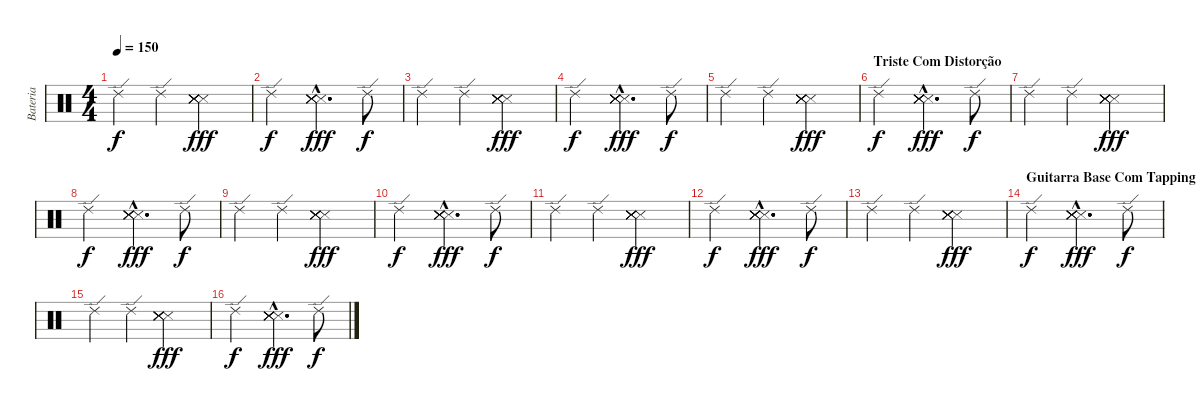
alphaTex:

\track ("Bateria" "Bateria") {instrument percussion}
\staff {score}
\articulation defaults
\ts (4 4)
\tempo 150
\clef neutral
\ks c "Ride (edge) 2".4{dy f} "Ride (edge) 2".4
("Snare (side stick) 3" "Snare (side stick) 3" "Snare (side stick) 3" "Snare (side stick) 3" "Snare (side stick) 3" "Snare (side stick) 3").2{dy fff} |
"Ride (edge) 2".2{dy f} ("Snare (side stick) 3"{hac} "Snare (side stick) 3"{hac} "Snare (side stick) 3"{hac} "Snare (side stick) 3"{hac} "Snare (side stick) 3"{hac} "Snare (side stick) 3"{hac}).4{d dy fff} "Ride (edge) 2".8{dy f} |
"Ride (edge) 2".4 "Ride (edge) 2".4 ("Snare (side stick) 3" "Snare (side stick) 3" "Snare (side stick) 3" "Snare (side stick) 3" "Snare (side stick) 3" "Snare (side stick) 3").2{dy fff} |
"Ride (edge) 2".2{dy f} ("Snare (side stick) 3"{hac} "Snare (side stick) 3"{hac} "Snare (side stick) 3"{hac} "Snare (side stick) 3"{hac} "Snare (side stick) 3"{hac} "Snare (side stick) 3"{hac}).4{d dy fff} "Ride (edge) 2".8{dy f} |
"Ride (edge) 2".4 "Ride (edge) 2".4 ("Snare (side stick) 3" "Snare (side stick) 3" "Snare (side stick) 3" "Snare (side stick) 3" "Snare (side stick) 3" "Snare (side stick) 3").2{dy fff} |
\section ("" "Triste Com Distorção")
"Ride (edge) 2".2{dy f} ("Snare (side stick) 3"{hac} "Snare (side stick) 3"{hac} "Snare (side stick) 3"{hac} "Snare (side stick) 3"{hac} "Snare (side stick) 3"{hac} "Snare (side stick) 3"{hac}).4{d dy fff} "Ride (edge) 2".8{dy f} |
"Ride (edge) 2".4 "Ride (edge) 2".4 ("Snare (side stick) 3" "Snare (side stick) 3" "Snare (side stick) 3" "Snare (side stick) 3" "Snare (side stick) 3" "Snare (side stick) 3").2{dy fff} |
"Ride (edge) 2".2{dy f} ("Snare (side stick) 3"{hac} "Snare (side stick) 3"{hac} "Snare (side stick) 3"{hac} "Snare (side stick) 3"{hac} "Snare (side stick) 3"{hac} "Snare (side stick) 3"{hac}).4{d dy fff} "Ride (edge) 2".8{dy f} |
"Ride (edge) 2".4 "Ride (edge) 2".4 ("Snare (side stick) 3" "Snare (side stick) 3" "Snare (side stick) 3" "Snare (side stick) 3" "Snare (side stick) 3" "Snare (side stick) 3").2{dy fff} |
"Ride (edge) 2".2{dy f} ("Snare (side stick) 3"{hac} "Snare (side stick) 3"{hac} "Snare (side stick) 3"{hac} "Snare (side stick) 3"{hac} "Snare (side stick) 3"{hac} "Snare (side stick) 3"{hac}).4{d dy fff} "Ride (edge) 2".8{dy f} |
"Ride (edge) 2".4 "Ride (edge) 2".4 ("Snare (side stick) 3" "Snare (side stick) 3" "Snare (side stick) 3" "Snare (side stick) 3" "Snare (side stick) 3" "Snare (side stick) 3").2{dy fff} |
"Ride (edge) 2".2{dy f} ("Snare (side stick) 3"{hac} "Snare (side stick) 3"{hac} "Snare (side stick) 3"{hac} "Snare (side stick) 3"{hac} "Snare (side stick) 3"{hac} "Snare (side stick) 3"{hac}).4{d dy fff} "Ride (edge) 2".8{dy f} |
"Ride (edge) 2".4 "Ride (edge) 2".4 ("Snare (side stick) 3" "Snare (side stick) 3" "Snare (side stick) 3" "Snare (side stick) 3" "Snare (side stick) 3" "Snare (side stick) 3").2{dy fff} |
\section ("" "Guitarra Base Com Tapping")
"Ride (edge) 2".2{dy f} ("Snare (side stick) 3"{hac} "Snare (side stick) 3"{hac} "Snare (side stick) 3"{hac} "Snare (side stick) 3"{hac} "Snare (side stick) 3"{hac} "Snare (side stick) 3"{hac}).4{d dy fff} "Ride (edge) 2".8{dy f} |
"Ride (edge) 2".4 "Ride (edge) 2".4 ("Snare (side stick) 3" "Snare (side stick) 3" "Snare (side stick) 3" "Snare (side stick) 3" "Snare (side stick) 3" "Snare (side stick) 3").2{dy fff} |
"Ride (edge) 2".2{dy f} ("Snare (side stick) 3"{hac} "Snare (side stick) 3"{hac} "Snare (side stick) 3"{hac} "Snare (side stick) 3"{hac} "Snare (side stick) 3"{hac} "Snare (side stick) 3"{hac}).4{d dy fff} "Ride (edge) 2".8{dy f}
